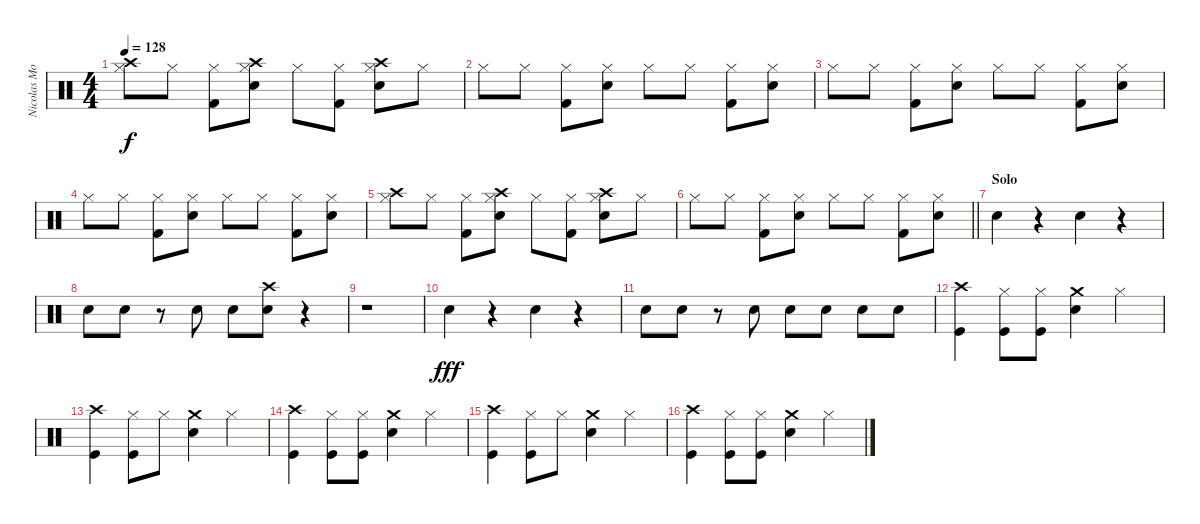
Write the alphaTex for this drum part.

\track ("Nicolas Mosquera" "Nicolas Mo") {mute instrument percussion}
\staff {score}
\articulation defaults
\ts (4 4)
\tempo 128
\clef neutral
\ks c
("Hi-Hat (closed)" "Crash high (hit)").8{dy f} "Hi-Hat (closed)".8 ("Hi-Hat (closed)" "Kick (hit) 2").8 ("Hi-Hat (closed)" "Snare (hit) 2" "Crash high (hit)").8 "Hi-Hat (closed)".8 ("Hi-Hat (closed)" "Kick (hit) 2").8 ("Hi-Hat (closed)" "Snare (hit) 2" "Crash high (hit)").8 "Hi-Hat (closed)".8 |
"Hi-Hat (closed)".8 "Hi-Hat (closed)".8 ("Hi-Hat (closed)" "Kick (hit) 2").8 ("Hi-Hat (closed)" "Snare (hit) 2").8 "Hi-Hat (closed)".8 "Hi-Hat (closed)".8 ("Hi-Hat (closed)" "Kick (hit) 2").8 ("Hi-Hat (closed)" "Snare (hit) 2").8 |
"Hi-Hat (closed)".8 "Hi-Hat (closed)".8 ("Hi-Hat (closed)" "Kick (hit) 2").8 ("Hi-Hat (closed)" "Snare (hit) 2").8 "Hi-Hat (closed)".8 "Hi-Hat (closed)".8 ("Hi-Hat (closed)" "Kick (hit) 2").8 ("Hi-Hat (closed)" "Snare (hit) 2").8 |
"Hi-Hat (closed)".8 "Hi-Hat (closed)".8 ("Hi-Hat (closed)" "Kick (hit) 2").8 ("Hi-Hat (closed)" "Snare (hit) 2").8 "Hi-Hat (closed)".8 "Hi-Hat (closed)".8 ("Hi-Hat (closed)" "Kick (hit) 2").8 ("Hi-Hat (closed)" "Snare (hit) 2").8 |
("Hi-Hat (closed)" "Crash high (hit)").8 "Hi-Hat (closed)".8 ("Hi-Hat (closed)" "Kick (hit) 2").8 ("Hi-Hat (closed)" "Snare (hit) 2" "Crash high (hit)").8 "Hi-Hat (closed)".8 ("Hi-Hat (closed)" "Kick (hit) 2").8 ("Hi-Hat (closed)" "Snare (hit) 2" "Crash high (hit)").8 "Hi-Hat (closed)".8 |
\barLineRight lightlight "Hi-Hat (closed)".8 "Hi-Hat (closed)".8
("Hi-Hat (closed)" "Kick (hit) 2").8 ("Hi-Hat (closed)" "Snare (hit) 2").8 "Hi-Hat (closed)".8 "Hi-Hat (closed)".8 ("Hi-Hat (closed)" "Kick (hit) 2").8 ("Hi-Hat (closed)" "Snare (hit) 2").8 |
\section ("" "Solo")
"Snare (hit) 2".4 r.4 "Snare (hit) 2".4 r.4 |
"Snare (hit) 2".8 "Snare (hit) 2".8 r.8 "Snare (hit) 2".8 "Snare (hit) 2".8 ("Snare (hit) 2" "Crash high (hit)").8 r.4 |
r.1 |
"Snare (hit) 2".4{dy fff} r.4 "Snare (hit) 2".4 r.4 |
"Snare (hit) 2".8 "Snare (hit) 2".8 r.8 "Snare (hit) 2".8 "Snare (hit) 2".8 "Snare (hit) 2".8 "Snare (hit) 2".8 "Snare (hit) 2".8 |
("Crash high (hit)" "Kick (hit)").4 ("Kick (hit)" "Hi-Hat (closed)").8 ("Kick (hit)" "Hi-Hat (closed)").8 ("Crash medium (hit)" "Snare (hit) 2").4 "Hi-Hat (closed)".4 |
("Crash high (hit)" "Kick (hit)").4 ("Hi-Hat (closed)" "Kick (hit)").8 "Hi-Hat (closed)".8 ("Crash medium (hit)" "Snare (hit) 2").4 "Hi-Hat (closed)".4 |
("Crash high (hit)" "Kick (hit)").4 ("Kick (hit)" "Hi-Hat (closed)").8 ("Kick (hit)" "Hi-Hat (closed)").8 ("Crash medium (hit)" "Snare (hit) 2").4 "Hi-Hat (closed)".4 |
("Crash high (hit)" "Kick (hit)").4 ("Hi-Hat (closed)" "Kick (hit)").8 "Hi-Hat (closed)".8 ("Crash medium (hit)" "Snare (hit) 2").4 "Hi-Hat (closed)".4 |
("Crash high (hit)" "Kick (hit)").4 ("Kick (hit)" "Hi-Hat (closed)").8 ("Kick (hit)" "Hi-Hat (closed)").8 ("Crash medium (hit)" "Snare (hit) 2").4 "Hi-Hat (closed)".4
